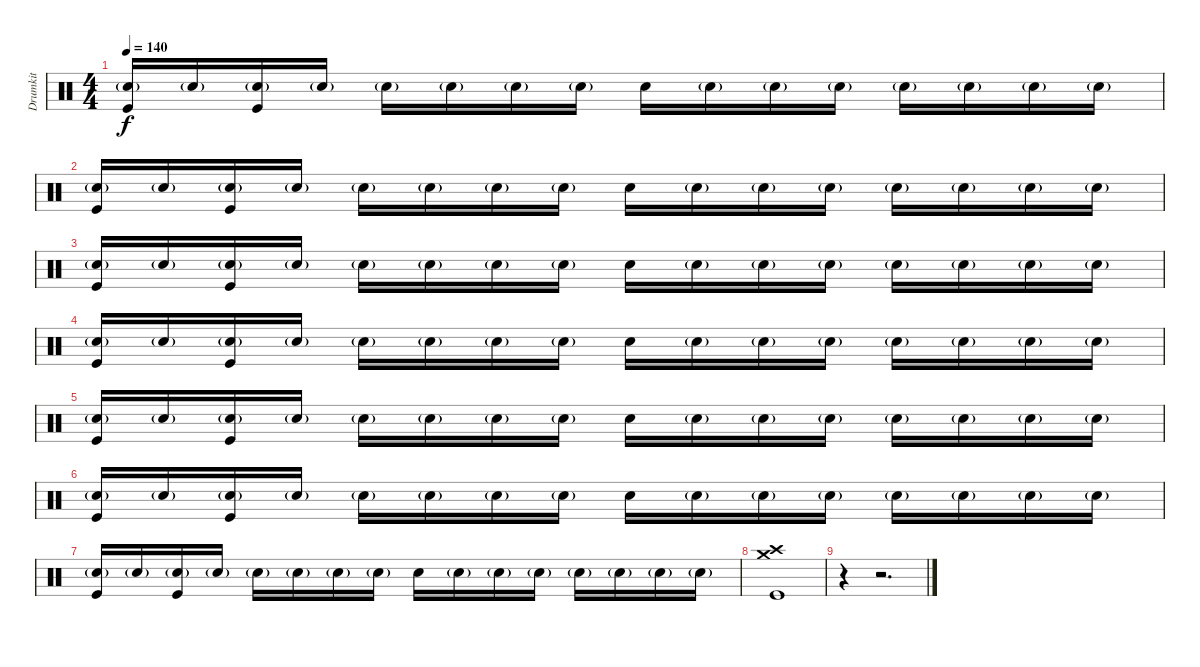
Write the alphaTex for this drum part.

\track ("Drumkit" "Drumkit") {instrument percussion}
\staff {score}
\articulation defaults
\ts (4 4)
\tempo 140
\clef neutral
\ks c
("Snare (hit) 2"{g} "Kick (hit)").16{dy f} "Snare (hit) 2"{g}.16 ("Snare (hit) 2"{g} "Kick (hit)").16 "Snare (hit) 2"{g}.16 "Snare (hit) 2"{g}.16 "Snare (hit) 2"{g}.16 "Snare (hit) 2"{g}.16 "Snare (hit) 2"{g}.16 "Snare (hit) 2".16 "Snare (hit) 2"{g}.16 "Snare (hit) 2"{g}.16 "Snare (hit) 2"{g}.16 "Snare (hit) 2"{g}.16 "Snare (hit) 2"{g}.16 "Snare (hit) 2"{g}.16 "Snare (hit) 2"{g}.16 |
("Snare (hit) 2"{g} "Kick (hit)").16 "Snare (hit) 2"{g}.16 ("Snare (hit) 2"{g} "Kick (hit)").16 "Snare (hit) 2"{g}.16 "Snare (hit) 2"{g}.16 "Snare (hit) 2"{g}.16 "Snare (hit) 2"{g}.16 "Snare (hit) 2"{g}.16 "Snare (hit) 2".16 "Snare (hit) 2"{g}.16 "Snare (hit) 2"{g}.16 "Snare (hit) 2"{g}.16 "Snare (hit) 2"{g}.16 "Snare (hit) 2"{g}.16 "Snare (hit) 2"{g}.16 "Snare (hit) 2"{g}.16 |
("Snare (hit) 2"{g} "Kick (hit)").16 "Snare (hit) 2"{g}.16 ("Snare (hit) 2"{g} "Kick (hit)").16 "Snare (hit) 2"{g}.16 "Snare (hit) 2"{g}.16 "Snare (hit) 2"{g}.16 "Snare (hit) 2"{g}.16 "Snare (hit) 2"{g}.16 "Snare (hit) 2".16 "Snare (hit) 2"{g}.16 "Snare (hit) 2"{g}.16 "Snare (hit) 2"{g}.16 "Snare (hit) 2"{g}.16 "Snare (hit) 2"{g}.16 "Snare (hit) 2"{g}.16 "Snare (hit) 2"{g}.16 |
("Snare (hit) 2"{g} "Kick (hit)").16 "Snare (hit) 2"{g}.16 ("Snare (hit) 2"{g} "Kick (hit)").16 "Snare (hit) 2"{g}.16 "Snare (hit) 2"{g}.16 "Snare (hit) 2"{g}.16 "Snare (hit) 2"{g}.16 "Snare (hit) 2"{g}.16 "Snare (hit) 2".16 "Snare (hit) 2"{g}.16 "Snare (hit) 2"{g}.16 "Snare (hit) 2"{g}.16 "Snare (hit) 2"{g}.16 "Snare (hit) 2"{g}.16 "Snare (hit) 2"{g}.16 "Snare (hit) 2"{g}.16 |
("Snare (hit) 2"{g} "Kick (hit)").16 "Snare (hit) 2"{g}.16 ("Snare (hit) 2"{g} "Kick (hit)").16 "Snare (hit) 2"{g}.16 "Snare (hit) 2"{g}.16 "Snare (hit) 2"{g}.16 "Snare (hit) 2"{g}.16 "Snare (hit) 2"{g}.16 "Snare (hit) 2".16 "Snare (hit) 2"{g}.16 "Snare (hit) 2"{g}.16 "Snare (hit) 2"{g}.16 "Snare (hit) 2"{g}.16 "Snare (hit) 2"{g}.16 "Snare (hit) 2"{g}.16 "Snare (hit) 2"{g}.16 |
("Snare (hit) 2"{g} "Kick (hit)").16 "Snare (hit) 2"{g}.16 ("Snare (hit) 2"{g} "Kick (hit)").16 "Snare (hit) 2"{g}.16 "Snare (hit) 2"{g}.16 "Snare (hit) 2"{g}.16 "Snare (hit) 2"{g}.16 "Snare (hit) 2"{g}.16 "Snare (hit) 2".16 "Snare (hit) 2"{g}.16 "Snare (hit) 2"{g}.16 "Snare (hit) 2"{g}.16 "Snare (hit) 2"{g}.16 "Snare (hit) 2"{g}.16 "Snare (hit) 2"{g}.16 "Snare (hit) 2"{g}.16 |
("Snare (hit) 2"{g} "Kick (hit)").16 "Snare (hit) 2"{g}.16 ("Snare (hit) 2"{g} "Kick (hit)").16 "Snare (hit) 2"{g}.16 "Snare (hit) 2"{g}.16 "Snare (hit) 2"{g}.16 "Snare (hit) 2"{g}.16 "Snare (hit) 2"{g}.16 "Snare (hit) 2".16 "Snare (hit) 2"{g}.16 "Snare (hit) 2"{g}.16 "Snare (hit) 2"{g}.16 "Snare (hit) 2"{g}.16 "Snare (hit) 2"{g}.16 "Snare (hit) 2"{g}.16 "Snare (hit) 2"{g}.16 |
("Crash medium (hit)" "Crash high (hit)" "Kick (hit)").1 |
r.4 r.2{d}
